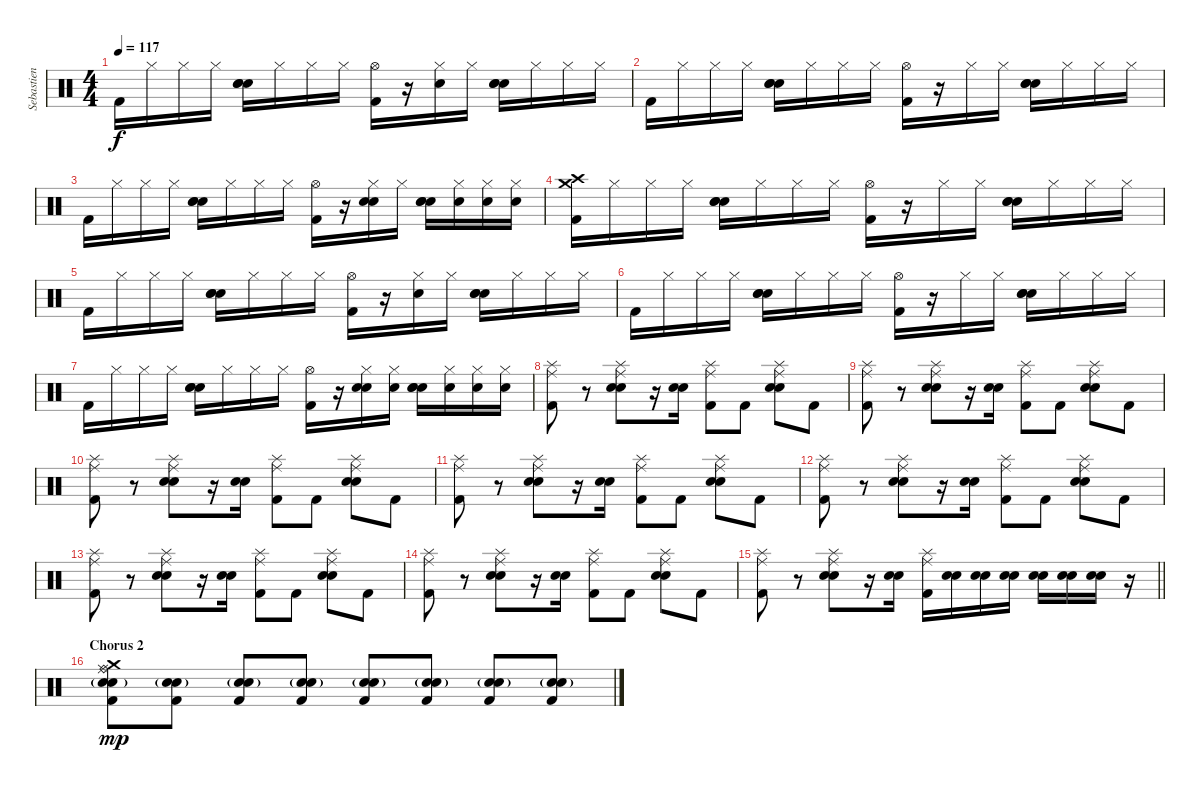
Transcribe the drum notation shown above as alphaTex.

\track ("Sebastien Grainger Drums" "Sebastien ") {instrument percussion}
\staff {score}
\articulation defaults
\ts (4 4)
\tempo 117
\clef neutral
\ks c "Kick (hit) 2".16{dy f} "Hi-Hat (closed)".16 "Hi-Hat (closed)".16 "Hi-Hat (closed)".16
("Hand Clap (hit)" "Electric Snare (hit)" "Snare (hit) 2").16 "Hi-Hat (closed)".16 "Hi-Hat (closed)".16 "Hi-Hat (closed)".16 ("Hi-Hat (open)" "Kick (hit) 2").16 r.16 ("Hand Clap (hit)" "Hi-Hat (closed)").16 "Hi-Hat (closed)".16 ("Hand Clap (hit)" "Electric Snare (hit)" "Snare (hit) 2").16 "Hi-Hat (closed)".16 "Hi-Hat (closed)".16 "Hi-Hat (closed)".16 |
"Kick (hit) 2".16 "Hi-Hat (closed)".16 "Hi-Hat (closed)".16 "Hi-Hat (closed)".16 ("Hand Clap (hit)" "Electric Snare (hit)" "Snare (hit) 2").16 "Hi-Hat (closed)".16 "Hi-Hat (closed)".16 "Hi-Hat (closed)".16 ("Hi-Hat (open)" "Kick (hit) 2").16 r.16 "Hi-Hat (closed)".16 "Hi-Hat (closed)".16 ("Hand Clap (hit)" "Electric Snare (hit)" "Snare (hit) 2").16 "Hi-Hat (closed)".16 "Hi-Hat (closed)".16 "Hi-Hat (closed)".16 |
"Kick (hit) 2".16 "Hi-Hat (closed)".16 "Hi-Hat (closed)".16 "Hi-Hat (closed)".16 ("Hand Clap (hit)" "Electric Snare (hit)" "Snare (hit) 2").16 "Hi-Hat (closed)".16 "Hi-Hat (closed)".16 "Hi-Hat (closed)".16 ("Hi-Hat (open)" "Kick (hit) 2").16 r.16 ("Hand Clap (hit)" "Hi-Hat (closed)" "Snare (hit) 2").16 "Hi-Hat (closed)".16 ("Hand Clap (hit)" "Electric Snare (hit)" "Snare (hit) 2").16 ("Hi-Hat (closed)" "Snare (hit) 2").16 ("Hi-Hat (closed)" "Snare (hit) 2").16 ("Hi-Hat (closed)" "Snare (hit) 2").16 |
("Crash high (hit)" "Crash medium (hit)" "Kick (hit) 2").16 "Hi-Hat (closed)".16 "Hi-Hat (closed)".16 "Hi-Hat (closed)".16 ("Hand Clap (hit)" "Electric Snare (hit)" "Snare (hit) 2").16 "Hi-Hat (closed)".16 "Hi-Hat (closed)".16 "Hi-Hat (closed)".16 ("Hi-Hat (open)" "Kick (hit) 2").16 r.16 "Hi-Hat (closed)".16 "Hi-Hat (closed)".16 ("Hand Clap (hit)" "Electric Snare (hit)" "Snare (hit) 2").16 "Hi-Hat (closed)".16 "Hi-Hat (closed)".16 "Hi-Hat (closed)".16 |
"Kick (hit) 2".16 "Hi-Hat (closed)".16 "Hi-Hat (closed)".16 "Hi-Hat (closed)".16 ("Hand Clap (hit)" "Electric Snare (hit)" "Snare (hit) 2").16 "Hi-Hat (closed)".16 "Hi-Hat (closed)".16 "Hi-Hat (closed)".16 ("Hi-Hat (open)" "Kick (hit) 2").16 r.16 ("Hand Clap (hit)" "Hi-Hat (closed)").16 "Hi-Hat (closed)".16 ("Hand Clap (hit)" "Electric Snare (hit)" "Snare (hit) 2").16 "Hi-Hat (closed)".16 "Hi-Hat (closed)".16 "Hi-Hat (closed)".16 |
"Kick (hit) 2".16 "Hi-Hat (closed)".16 "Hi-Hat (closed)".16 "Hi-Hat (closed)".16 ("Hand Clap (hit)" "Electric Snare (hit)" "Snare (hit) 2").16 "Hi-Hat (closed)".16 "Hi-Hat (closed)".16 "Hi-Hat (closed)".16 ("Hi-Hat (open)" "Kick (hit) 2").16 r.16 "Hi-Hat (closed)".16 "Hi-Hat (closed)".16 ("Hand Clap (hit)" "Electric Snare (hit)" "Snare (hit) 2").16 "Hi-Hat (closed)".16 "Hi-Hat (closed)".16 "Hi-Hat (closed)".16 |
"Kick (hit) 2".16 "Hi-Hat (closed)".16 "Hi-Hat (closed)".16 "Hi-Hat (closed)".16 ("Hand Clap (hit)" "Electric Snare (hit)" "Snare (hit) 2").16 "Hi-Hat (closed)".16 "Hi-Hat (closed)".16 "Hi-Hat (closed)".16 ("Hi-Hat (open)" "Kick (hit) 2").16 r.16 ("Hand Clap (hit)" "Hi-Hat (closed)" "Snare (hit) 2").16 ("Hi-Hat (closed)" "Snare (hit) 2").16 ("Hand Clap (hit)" "Electric Snare (hit)" "Snare (hit) 2").16 ("Hi-Hat (closed)" "Snare (hit) 2").16 ("Hi-Hat (closed)" "Snare (hit) 2").16 ("Hi-Hat (closed)" "Snare (hit) 2").16 |
("Splash (hit)" "Ride (middle)" "Kick (hit) 2").8 r.8 ("Splash (hit)" "Ride (middle)" "Snare (hit) 2" "Electric Snare (hit)").8 r.16 ("Snare (hit) 2" "Electric Snare (hit)").16 ("Splash (hit)" "Ride (middle)" "Kick (hit) 2").8 "Kick (hit) 2".8 ("Splash (hit)" "Ride (middle)" "Snare (hit) 2" "Electric Snare (hit)").8 "Kick (hit) 2".8 |
("Splash (hit)" "Ride (middle)" "Kick (hit) 2").8 r.8 ("Splash (hit)" "Ride (middle)" "Snare (hit) 2" "Electric Snare (hit)").8 r.16 ("Snare (hit) 2" "Electric Snare (hit)").16 ("Splash (hit)" "Ride (middle)" "Kick (hit) 2").8 "Kick (hit) 2".8 ("Splash (hit)" "Ride (middle)" "Snare (hit) 2" "Electric Snare (hit)").8 "Kick (hit) 2".8 |
("Splash (hit)" "Ride (middle)" "Kick (hit) 2").8 r.8 ("Splash (hit)" "Ride (middle)" "Snare (hit) 2" "Electric Snare (hit)").8 r.16 ("Snare (hit) 2" "Electric Snare (hit)").16 ("Splash (hit)" "Ride (middle)" "Kick (hit) 2").8 "Kick (hit) 2".8 ("Splash (hit)" "Ride (middle)" "Snare (hit) 2" "Electric Snare (hit)").8 "Kick (hit) 2".8 |
("Splash (hit)" "Ride (middle)" "Kick (hit) 2").8 r.8 ("Splash (hit)" "Ride (middle)" "Snare (hit) 2" "Electric Snare (hit)").8 r.16 ("Snare (hit) 2" "Electric Snare (hit)").16 ("Splash (hit)" "Ride (middle)" "Kick (hit) 2").8 "Kick (hit) 2".8 ("Splash (hit)" "Ride (middle)" "Snare (hit) 2" "Electric Snare (hit)").8 "Kick (hit) 2".8 |
("Splash (hit)" "Ride (middle)" "Kick (hit) 2").8 r.8 ("Splash (hit)" "Ride (middle)" "Snare (hit) 2" "Electric Snare (hit)").8 r.16 ("Snare (hit) 2" "Electric Snare (hit)").16 ("Splash (hit)" "Ride (middle)" "Kick (hit) 2").8 "Kick (hit) 2".8 ("Splash (hit)" "Ride (middle)" "Snare (hit) 2" "Electric Snare (hit)").8 "Kick (hit) 2".8 |
("Splash (hit)" "Ride (middle)" "Kick (hit) 2").8 r.8 ("Splash (hit)" "Ride (middle)" "Snare (hit) 2" "Electric Snare (hit)").8 r.16 ("Snare (hit) 2" "Electric Snare (hit)").16 ("Splash (hit)" "Ride (middle)" "Kick (hit) 2").8 "Kick (hit) 2".8 ("Splash (hit)" "Ride (middle)" "Snare (hit) 2" "Electric Snare (hit)").8 "Kick (hit) 2".8 |
("Splash (hit)" "Ride (middle)" "Kick (hit) 2").8 r.8 ("Splash (hit)" "Ride (middle)" "Snare (hit) 2" "Electric Snare (hit)").8 r.16 ("Snare (hit) 2" "Electric Snare (hit)").16 ("Splash (hit)" "Ride (middle)" "Kick (hit) 2").8 "Kick (hit) 2".8 ("Splash (hit)" "Ride (middle)" "Snare (hit) 2" "Electric Snare (hit)").8 "Kick (hit) 2".8 |
\barLineRight lightlight
("Splash (hit)" "Ride (middle)" "Kick (hit) 2").8 r.8 ("Splash (hit)" "Ride (middle)" "Snare (hit) 2" "Electric Snare (hit)").8 r.16 ("Snare (hit) 2" "Electric Snare (hit)").16 ("Splash (hit)" "Ride (middle)" "Kick (hit) 2").16 ("Electric Snare (hit)" "Snare (hit) 2").16 ("Electric Snare (hit)" "Snare (hit) 2").16 ("Electric Snare (hit)" "Snare (hit) 2").16 ("Electric Snare (hit)" "Snare (hit) 2").16 ("Electric Snare (hit)" "Snare (hit) 2").16 ("Electric Snare (hit)" "Snare (hit) 2").16 r.16 |
\section ("" "Chorus 2")
("Kick (hit) 2" "Snare (hit) 2"{g} "Electric Snare (hit)"{g} "Crash medium (hit)" "Ride (middle)" "Ride (bell)").8{dy mp} ("Kick (hit) 2" "Snare (hit) 2"{g} "Electric Snare (hit)"{g}).8 ("Kick (hit) 2" "Snare (hit) 2"{g} "Electric Snare (hit)"{g}).8 ("Kick (hit) 2" "Snare (hit) 2"{g} "Electric Snare (hit)"{g}).8 ("Kick (hit) 2" "Snare (hit) 2"{g} "Electric Snare (hit)"{g}).8 ("Kick (hit) 2" "Snare (hit) 2"{g} "Electric Snare (hit)").8 ("Kick (hit) 2" "Snare (hit) 2"{g} "Electric Snare (hit)").8 ("Kick (hit) 2" "Snare (hit) 2"{g} "Electric Snare (hit)").8
